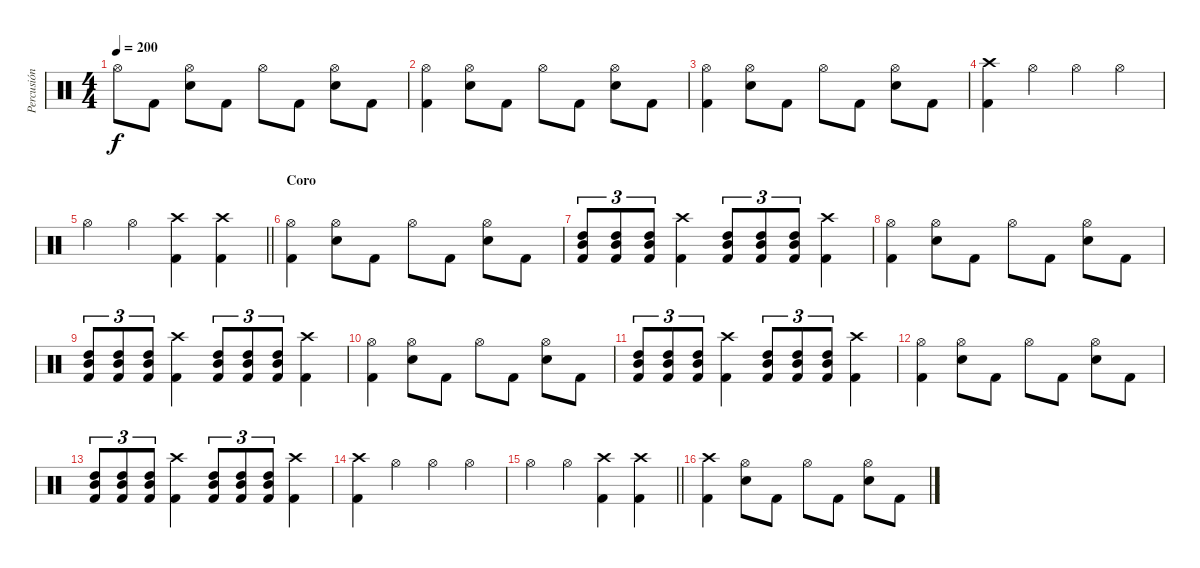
\track ("Percusión" "Percusión") {instrument percussion}
\staff {score}
\articulation defaults
\ts (4 4)
\tempo 200
\clef neutral
\ks c "Hi-Hat (open)".8{dy f} "Kick (hit) 2".8
("Hi-Hat (open)" "Electric Snare (hit)").8 "Kick (hit) 2".8 "Hi-Hat (open)".8 "Kick (hit) 2".8 ("Hi-Hat (open)" "Electric Snare (hit)").8 "Kick (hit) 2".8 |
("Hi-Hat (open)" "Kick (hit) 2").4 ("Hi-Hat (open)" "Electric Snare (hit)").8 "Kick (hit) 2".8 "Hi-Hat (open)".8 "Kick (hit) 2".8 ("Hi-Hat (open)" "Electric Snare (hit)").8 "Kick (hit) 2".8 |
("Hi-Hat (open)" "Kick (hit) 2").4 ("Hi-Hat (open)" "Electric Snare (hit)").8 "Kick (hit) 2".8 "Hi-Hat (open)".8 "Kick (hit) 2".8 ("Hi-Hat (open)" "Electric Snare (hit)").8 "Kick (hit) 2".8 |
("Crash high (hit)" "Kick (hit) 2").4 "Hi-Hat (open)".4 "Hi-Hat (open)".4 "Hi-Hat (open)".4 |
\barLineRight lightlight "Hi-Hat (open)".4 "Hi-Hat (open)".4
("Crash high (hit)" "Kick (hit) 2").4 ("Crash high (hit)" "Kick (hit) 2").4 |
\section ("" "Coro")
("Hi-Hat (open)" "Kick (hit) 2").4 ("Hi-Hat (open)" "Electric Snare (hit)").8 "Kick (hit) 2".8 "Hi-Hat (open)".8 "Kick (hit) 2".8 ("Hi-Hat (open)" "Electric Snare (hit)").8 "Kick (hit) 2".8 |
("High Tom (hit)" "Mid Tom (hit)" "Kick (hit) 2").8{tu (3 2)} ("High Tom (hit)" "Mid Tom (hit)" "Kick (hit) 2").8{tu (3 2)} ("High Tom (hit)" "Mid Tom (hit)" "Kick (hit) 2").8{tu (3 2)} ("Crash high (hit)" "Kick (hit) 2").4 ("High Tom (hit)" "Mid Tom (hit)" "Kick (hit) 2").8{tu (3 2)} ("High Tom (hit)" "Mid Tom (hit)" "Kick (hit) 2").8{tu (3 2)} ("High Tom (hit)" "Mid Tom (hit)" "Kick (hit) 2").8{tu (3 2)} ("Crash high (hit)" "Kick (hit) 2").4 |
("Hi-Hat (open)" "Kick (hit) 2").4 ("Hi-Hat (open)" "Electric Snare (hit)").8 "Kick (hit) 2".8 "Hi-Hat (open)".8 "Kick (hit) 2".8 ("Hi-Hat (open)" "Electric Snare (hit)").8 "Kick (hit) 2".8 |
("High Tom (hit)" "Mid Tom (hit)" "Kick (hit) 2").8{tu (3 2)} ("High Tom (hit)" "Mid Tom (hit)" "Kick (hit) 2").8{tu (3 2)} ("High Tom (hit)" "Mid Tom (hit)" "Kick (hit) 2").8{tu (3 2)} ("Crash high (hit)" "Kick (hit) 2").4 ("High Tom (hit)" "Mid Tom (hit)" "Kick (hit) 2").8{tu (3 2)} ("High Tom (hit)" "Mid Tom (hit)" "Kick (hit) 2").8{tu (3 2)} ("High Tom (hit)" "Mid Tom (hit)" "Kick (hit) 2").8{tu (3 2)} ("Crash high (hit)" "Kick (hit) 2").4 |
("Hi-Hat (open)" "Kick (hit) 2").4 ("Hi-Hat (open)" "Electric Snare (hit)").8 "Kick (hit) 2".8 "Hi-Hat (open)".8 "Kick (hit) 2".8 ("Hi-Hat (open)" "Electric Snare (hit)").8 "Kick (hit) 2".8 |
("High Tom (hit)" "Mid Tom (hit)" "Kick (hit) 2").8{tu (3 2)} ("High Tom (hit)" "Mid Tom (hit)" "Kick (hit) 2").8{tu (3 2)} ("High Tom (hit)" "Mid Tom (hit)" "Kick (hit) 2").8{tu (3 2)} ("Crash high (hit)" "Kick (hit) 2").4 ("High Tom (hit)" "Mid Tom (hit)" "Kick (hit) 2").8{tu (3 2)} ("High Tom (hit)" "Mid Tom (hit)" "Kick (hit) 2").8{tu (3 2)} ("High Tom (hit)" "Mid Tom (hit)" "Kick (hit) 2").8{tu (3 2)} ("Crash high (hit)" "Kick (hit) 2").4 |
("Hi-Hat (open)" "Kick (hit) 2").4 ("Hi-Hat (open)" "Electric Snare (hit)").8 "Kick (hit) 2".8 "Hi-Hat (open)".8 "Kick (hit) 2".8 ("Hi-Hat (open)" "Electric Snare (hit)").8 "Kick (hit) 2".8 |
("High Tom (hit)" "Mid Tom (hit)" "Kick (hit) 2").8{tu (3 2)} ("High Tom (hit)" "Mid Tom (hit)" "Kick (hit) 2").8{tu (3 2)} ("High Tom (hit)" "Mid Tom (hit)" "Kick (hit) 2").8{tu (3 2)} ("Crash high (hit)" "Kick (hit) 2").4 ("High Tom (hit)" "Mid Tom (hit)" "Kick (hit) 2").8{tu (3 2)} ("High Tom (hit)" "Mid Tom (hit)" "Kick (hit) 2").8{tu (3 2)} ("High Tom (hit)" "Mid Tom (hit)" "Kick (hit) 2").8{tu (3 2)} ("Crash high (hit)" "Kick (hit) 2").4 |
("Crash high (hit)" "Kick (hit) 2").4 "Hi-Hat (open)".4 "Hi-Hat (open)".4 "Hi-Hat (open)".4 |
\barLineRight lightlight "Hi-Hat (open)".4 "Hi-Hat (open)".4
("Crash high (hit)" "Kick (hit) 2").4 ("Crash high (hit)" "Kick (hit) 2").4 |
\section ("" "")
("Crash high (hit)" "Kick (hit) 2").4 ("Hi-Hat (open)" "Electric Snare (hit)").8 "Kick (hit) 2".8 "Hi-Hat (open)".8 "Kick (hit) 2".8 ("Hi-Hat (open)" "Electric Snare (hit)").8 "Kick (hit) 2".8
